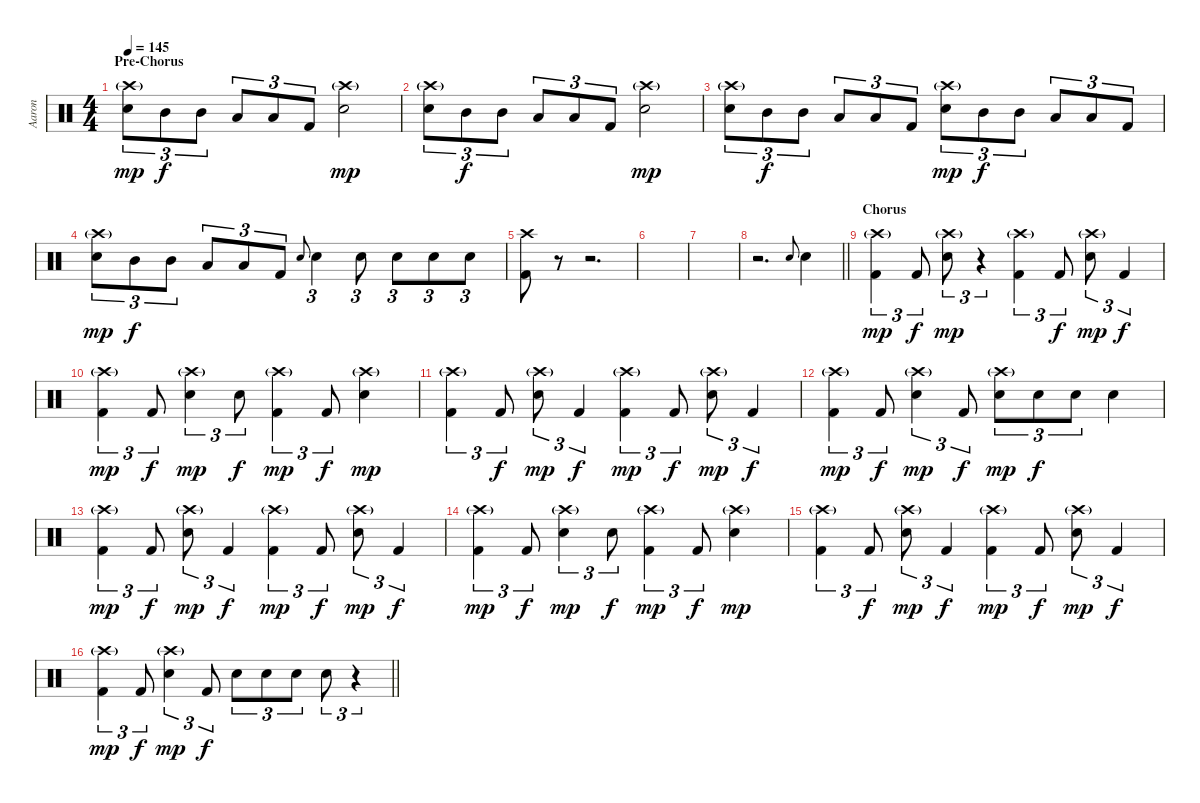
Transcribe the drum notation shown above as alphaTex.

\track ("Aaron" "Aaron") {instrument percussion}
\staff {score}
\articulation defaults
\ts (4 4)
\section ("" "Pre-Chorus")
\tempo 145
\clef neutral
\ks c
("Crash high (hit)"{g} "Electric Snare (hit)").8{tu (3 2) dy mp} "Mid Tom (hit)".8{tu (3 2) dy f} "Mid Tom (hit)".8{tu (3 2)} "Low Tom (hit)".8{tu (3 2)} "Low Tom (hit)".8{tu (3 2)} "Kick (hit) 2".8{tu (3 2)} ("Crash high (hit)"{g} "Electric Snare (hit)").2{dy mp} |
("Crash high (hit)"{g} "Electric Snare (hit)").8{tu (3 2)} "Mid Tom (hit)".8{tu (3 2) dy f} "Mid Tom (hit)".8{tu (3 2)} "Low Tom (hit)".8{tu (3 2)} "Low Tom (hit)".8{tu (3 2)} "Kick (hit) 2".8{tu (3 2)} ("Crash high (hit)"{g} "Electric Snare (hit)").2{dy mp} |
("Crash high (hit)"{g} "Electric Snare (hit)").8{tu (3 2)} "Mid Tom (hit)".8{tu (3 2) dy f} "Mid Tom (hit)".8{tu (3 2)} "Low Tom (hit)".8{tu (3 2)} "Low Tom (hit)".8{tu (3 2)} "Kick (hit) 2".8{tu (3 2)} ("Crash high (hit)"{g} "Electric Snare (hit)").8{tu (3 2) dy mp} "Mid Tom (hit)".8{tu (3 2) dy f} "Mid Tom (hit)".8{tu (3 2)} "Low Tom (hit)".8{tu (3 2)} "Low Tom (hit)".8{tu (3 2)} "Kick (hit) 2".8{tu (3 2)} |
("Crash high (hit)"{g} "Electric Snare (hit)").8{tu (3 2) dy mp} "Mid Tom (hit)".8{tu (3 2) dy f} "Mid Tom (hit)".8{tu (3 2)} "Low Tom (hit)".8{tu (3 2)} "Low Tom (hit)".8{tu (3 2)} "Kick (hit) 2".8{tu (3 2)} "Electric Snare (hit)".8{gr onbeat} "Electric Snare (hit)".4{tu (3 2)} "Electric Snare (hit)".8{tu (3 2)} "Electric Snare (hit)".8{tu (3 2)} "Electric Snare (hit)".8{tu (3 2)} "Electric Snare (hit)".8{tu (3 2)} |
("Crash high (hit)" "Kick (hit) 2").8 r.8 r.2{d} |
|
|
\barLineRight lightlight
r.2{d} "Electric Snare (hit)".8{gr onbeat} "Electric Snare (hit)".4 |
\section ("" "Chorus")
("Crash high (hit)"{g} "Kick (hit) 2").4{tu (3 2) dy mp} "Kick (hit) 2".8{tu (3 2) dy f} ("Crash high (hit)"{g} "Electric Snare (hit)").8{tu (3 2) dy mp} r.4{tu (3 2)} ("Crash high (hit)"{g} "Kick (hit) 2").4{tu (3 2)} "Kick (hit) 2".8{tu (3 2) dy f} ("Crash high (hit)"{g} "Electric Snare (hit)").8{tu (3 2) dy mp} "Kick (hit) 2".4{tu (3 2) dy f} |
("Crash high (hit)"{g} "Kick (hit) 2").4{tu (3 2) dy mp} "Kick (hit) 2".8{tu (3 2) dy f} ("Crash high (hit)"{g} "Electric Snare (hit)").4{tu (3 2) dy mp} "Electric Snare (hit)".8{tu (3 2) dy f} ("Crash high (hit)"{g} "Kick (hit) 2").4{tu (3 2) dy mp} "Kick (hit) 2".8{tu (3 2) dy f} ("Crash high (hit)"{g} "Electric Snare (hit)").4{dy mp} |
("Crash high (hit)"{g} "Kick (hit) 2").4{tu (3 2)} "Kick (hit) 2".8{tu (3 2) dy f} ("Crash high (hit)"{g} "Electric Snare (hit)").8{tu (3 2) dy mp} "Kick (hit) 2".4{tu (3 2) dy f} ("Crash high (hit)"{g} "Kick (hit) 2").4{tu (3 2) dy mp} "Kick (hit) 2".8{tu (3 2) dy f} ("Crash high (hit)"{g} "Electric Snare (hit)").8{tu (3 2) dy mp} "Kick (hit) 2".4{tu (3 2) dy f} |
("Crash high (hit)"{g} "Kick (hit) 2").4{tu (3 2) dy mp} "Kick (hit) 2".8{tu (3 2) dy f} ("Crash high (hit)"{g} "Electric Snare (hit)").4{tu (3 2) dy mp} "Kick (hit) 2".8{tu (3 2) dy f} ("Crash high (hit)"{g} "Electric Snare (hit)").8{tu (3 2) dy mp} "Electric Snare (hit)".8{tu (3 2) dy f} "Electric Snare (hit)".8{tu (3 2)} "Electric Snare (hit)".4 |
("Crash high (hit)"{g} "Kick (hit) 2").4{tu (3 2) dy mp} "Kick (hit) 2".8{tu (3 2) dy f} ("Crash high (hit)"{g} "Electric Snare (hit)").8{tu (3 2) dy mp} "Kick (hit) 2".4{tu (3 2) dy f} ("Crash high (hit)"{g} "Kick (hit) 2").4{tu (3 2) dy mp} "Kick (hit) 2".8{tu (3 2) dy f} ("Crash high (hit)"{g} "Electric Snare (hit)").8{tu (3 2) dy mp} "Kick (hit) 2".4{tu (3 2) dy f} |
("Crash high (hit)"{g} "Kick (hit) 2").4{tu (3 2) dy mp} "Kick (hit) 2".8{tu (3 2) dy f} ("Crash high (hit)"{g} "Electric Snare (hit)").4{tu (3 2) dy mp} "Electric Snare (hit)".8{tu (3 2) dy f} ("Crash high (hit)"{g} "Kick (hit) 2").4{tu (3 2) dy mp} "Kick (hit) 2".8{tu (3 2) dy f} ("Crash high (hit)"{g} "Electric Snare (hit)").4{dy mp} |
("Crash high (hit)"{g} "Kick (hit) 2").4{tu (3 2)} "Kick (hit) 2".8{tu (3 2) dy f} ("Crash high (hit)"{g} "Electric Snare (hit)").8{tu (3 2) dy mp} "Kick (hit) 2".4{tu (3 2) dy f} ("Crash high (hit)"{g} "Kick (hit) 2").4{tu (3 2) dy mp} "Kick (hit) 2".8{tu (3 2) dy f} ("Crash high (hit)"{g} "Electric Snare (hit)").8{tu (3 2) dy mp} "Kick (hit) 2".4{tu (3 2) dy f} |
\barLineRight lightlight
("Crash high (hit)"{g} "Kick (hit) 2").4{tu (3 2) dy mp} "Kick (hit) 2".8{tu (3 2) dy f} ("Crash high (hit)"{g} "Electric Snare (hit)").4{tu (3 2) dy mp} "Kick (hit) 2".8{tu (3 2) dy f} "Electric Snare (hit)".8{tu (3 2)} "Electric Snare (hit)".8{tu (3 2)} "Electric Snare (hit)".8{tu (3 2)} "Electric Snare (hit)".8{tu (3 2)} r.4{tu (3 2)}
